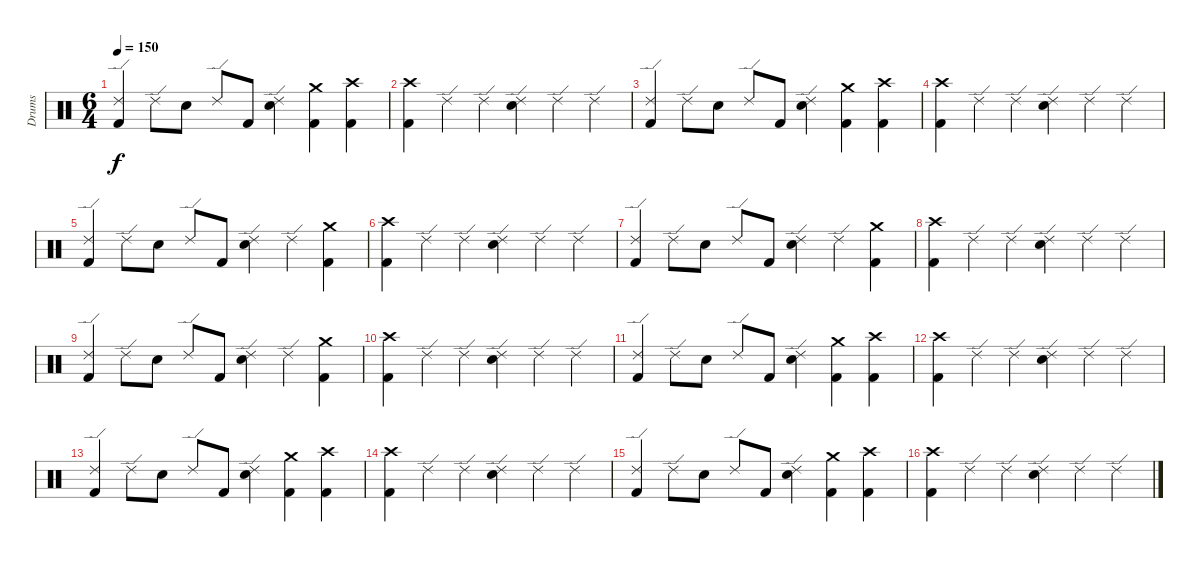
\track ("Drums" "Drums") {instrument percussion}
\staff {score}
\articulation defaults
\ts (6 4)
\tempo 150
\clef neutral
\ks c
("Ride (edge) 2" "Kick (hit) 2").4{dy f} "Ride (edge) 2".8 "Electric Snare (hit)".8 "Ride (edge) 2".8 "Kick (hit) 2".8 ("Ride (edge) 2" "Electric Snare (hit)").4 ("Crash medium (hit)" "Kick (hit) 2").4 ("Crash high (hit)" "Kick (hit) 2").4 |
("Crash high (hit)" "Kick (hit) 2").4 "Ride (edge) 2".4 "Ride (edge) 2".4 ("Ride (edge) 2" "Electric Snare (hit)").4 "Ride (edge) 2".4 "Ride (edge) 2".4 |
("Ride (edge) 2" "Kick (hit) 2").4 "Ride (edge) 2".8 "Electric Snare (hit)".8 "Ride (edge) 2".8 "Kick (hit) 2".8 ("Ride (edge) 2" "Electric Snare (hit)").4 ("Crash medium (hit)" "Kick (hit) 2").4 ("Crash high (hit)" "Kick (hit) 2").4 |
("Crash high (hit)" "Kick (hit) 2").4 "Ride (edge) 2".4 "Ride (edge) 2".4 ("Ride (edge) 2" "Electric Snare (hit)").4 "Ride (edge) 2".4 "Ride (edge) 2".4 |
("Ride (edge) 2" "Kick (hit) 2").4 "Ride (edge) 2".8 "Electric Snare (hit)".8 "Ride (edge) 2".8 "Kick (hit) 2".8 ("Ride (edge) 2" "Electric Snare (hit)").4 "Ride (edge) 2".4 ("Crash medium (hit)" "Kick (hit) 2").4 |
("Crash high (hit)" "Kick (hit) 2").4 "Ride (edge) 2".4 "Ride (edge) 2".4 ("Ride (edge) 2" "Electric Snare (hit)").4 "Ride (edge) 2".4 "Ride (edge) 2".4 |
("Ride (edge) 2" "Kick (hit) 2").4 "Ride (edge) 2".8 "Electric Snare (hit)".8 "Ride (edge) 2".8 "Kick (hit) 2".8 ("Ride (edge) 2" "Electric Snare (hit)").4 "Ride (edge) 2".4 ("Crash medium (hit)" "Kick (hit) 2").4 |
("Crash high (hit)" "Kick (hit) 2").4 "Ride (edge) 2".4 "Ride (edge) 2".4 ("Ride (edge) 2" "Electric Snare (hit)").4 "Ride (edge) 2".4 "Ride (edge) 2".4 |
("Ride (edge) 2" "Kick (hit) 2").4 "Ride (edge) 2".8 "Electric Snare (hit)".8 "Ride (edge) 2".8 "Kick (hit) 2".8 ("Ride (edge) 2" "Electric Snare (hit)").4 "Ride (edge) 2".4 ("Crash medium (hit)" "Kick (hit) 2").4 |
("Crash high (hit)" "Kick (hit) 2").4 "Ride (edge) 2".4 "Ride (edge) 2".4 ("Ride (edge) 2" "Electric Snare (hit)").4 "Ride (edge) 2".4 "Ride (edge) 2".4 |
("Ride (edge) 2" "Kick (hit) 2").4 "Ride (edge) 2".8 "Electric Snare (hit)".8 "Ride (edge) 2".8 "Kick (hit) 2".8 ("Ride (edge) 2" "Electric Snare (hit)").4 ("Crash medium (hit)" "Kick (hit) 2").4 ("Crash high (hit)" "Kick (hit) 2").4 |
("Crash high (hit)" "Kick (hit) 2").4 "Ride (edge) 2".4 "Ride (edge) 2".4 ("Ride (edge) 2" "Electric Snare (hit)").4 "Ride (edge) 2".4 "Ride (edge) 2".4 |
("Ride (edge) 2" "Kick (hit) 2").4 "Ride (edge) 2".8 "Electric Snare (hit)".8 "Ride (edge) 2".8 "Kick (hit) 2".8 ("Ride (edge) 2" "Electric Snare (hit)").4 ("Crash medium (hit)" "Kick (hit) 2").4 ("Crash high (hit)" "Kick (hit) 2").4 |
("Crash high (hit)" "Kick (hit) 2").4 "Ride (edge) 2".4 "Ride (edge) 2".4 ("Ride (edge) 2" "Electric Snare (hit)").4 "Ride (edge) 2".4 "Ride (edge) 2".4 |
("Ride (edge) 2" "Kick (hit) 2").4 "Ride (edge) 2".8 "Electric Snare (hit)".8 "Ride (edge) 2".8 "Kick (hit) 2".8 ("Ride (edge) 2" "Electric Snare (hit)").4 ("Crash medium (hit)" "Kick (hit) 2").4 ("Crash high (hit)" "Kick (hit) 2").4 |
("Crash high (hit)" "Kick (hit) 2").4 "Ride (edge) 2".4 "Ride (edge) 2".4 ("Ride (edge) 2" "Electric Snare (hit)").4 "Ride (edge) 2".4 "Ride (edge) 2".4
